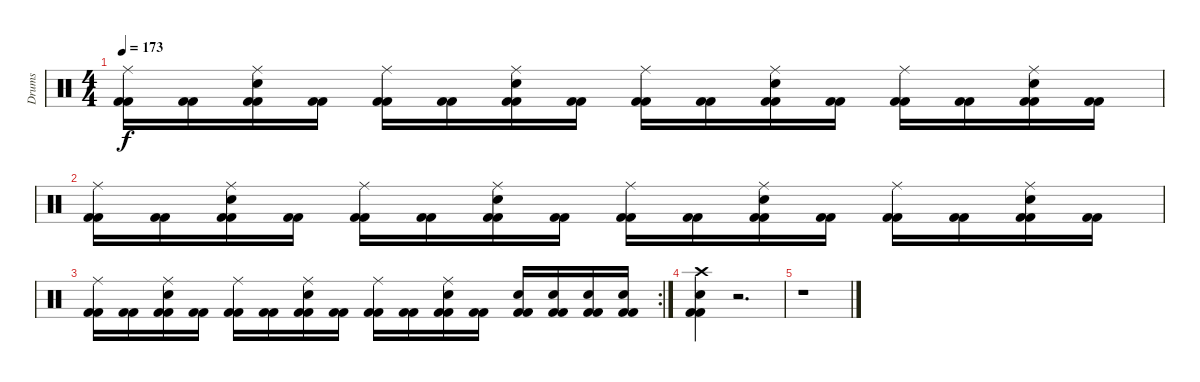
\track ("Drums" "Drums") {instrument percussion}
\staff {score}
\articulation defaults
\ts (4 4)
\tempo 173
\clef neutral
\ks c
("Kick (hit) 2" "Kick (hit) 2" "Ride (middle)").16{dy f} ("Kick (hit) 2" "Kick (hit) 2").16 ("Kick (hit) 2" "Kick (hit) 2" "Ride (middle)" "Electric Snare (hit)").16 ("Kick (hit) 2" "Kick (hit) 2").16 ("Kick (hit) 2" "Kick (hit) 2" "Ride (middle)").16 ("Kick (hit) 2" "Kick (hit) 2").16 ("Kick (hit) 2" "Kick (hit) 2" "Ride (middle)" "Electric Snare (hit)").16 ("Kick (hit) 2" "Kick (hit) 2").16 ("Kick (hit) 2" "Kick (hit) 2" "Ride (middle)").16 ("Kick (hit) 2" "Kick (hit) 2").16 ("Kick (hit) 2" "Kick (hit) 2" "Ride (middle)" "Electric Snare (hit)").16 ("Kick (hit) 2" "Kick (hit) 2").16 ("Kick (hit) 2" "Kick (hit) 2" "Ride (middle)").16 ("Kick (hit) 2" "Kick (hit) 2").16 ("Kick (hit) 2" "Kick (hit) 2" "Ride (middle)" "Electric Snare (hit)").16 ("Kick (hit) 2" "Kick (hit) 2").16 |
("Kick (hit) 2" "Kick (hit) 2" "Ride (middle)").16 ("Kick (hit) 2" "Kick (hit) 2").16 ("Kick (hit) 2" "Kick (hit) 2" "Ride (middle)" "Electric Snare (hit)").16 ("Kick (hit) 2" "Kick (hit) 2").16 ("Kick (hit) 2" "Kick (hit) 2" "Ride (middle)").16 ("Kick (hit) 2" "Kick (hit) 2").16 ("Kick (hit) 2" "Kick (hit) 2" "Ride (middle)" "Electric Snare (hit)").16 ("Kick (hit) 2" "Kick (hit) 2").16 ("Kick (hit) 2" "Kick (hit) 2" "Ride (middle)").16 ("Kick (hit) 2" "Kick (hit) 2").16 ("Kick (hit) 2" "Kick (hit) 2" "Ride (middle)" "Electric Snare (hit)").16 ("Kick (hit) 2" "Kick (hit) 2").16 ("Kick (hit) 2" "Kick (hit) 2" "Ride (middle)").16 ("Kick (hit) 2" "Kick (hit) 2").16 ("Kick (hit) 2" "Kick (hit) 2" "Ride (middle)" "Electric Snare (hit)").16 ("Kick (hit) 2" "Kick (hit) 2").16 |
\rc 2
("Kick (hit) 2" "Kick (hit) 2" "Ride (middle)").16 ("Kick (hit) 2" "Kick (hit) 2").16 ("Kick (hit) 2" "Kick (hit) 2" "Ride (middle)" "Electric Snare (hit)").16 ("Kick (hit) 2" "Kick (hit) 2").16 ("Kick (hit) 2" "Kick (hit) 2" "Ride (middle)").16 ("Kick (hit) 2" "Kick (hit) 2").16 ("Kick (hit) 2" "Kick (hit) 2" "Ride (middle)" "Electric Snare (hit)").16 ("Kick (hit) 2" "Kick (hit) 2").16 ("Kick (hit) 2" "Kick (hit) 2" "Ride (middle)").16 ("Kick (hit) 2" "Kick (hit) 2").16 ("Kick (hit) 2" "Kick (hit) 2" "Ride (middle)" "Electric Snare (hit)").16 ("Kick (hit) 2" "Kick (hit) 2").16 ("Kick (hit) 2" "Kick (hit) 2" "Electric Snare (hit)").16 ("Kick (hit) 2" "Kick (hit) 2" "Electric Snare (hit)").16 ("Kick (hit) 2" "Kick (hit) 2" "Electric Snare (hit)").16 ("Kick (hit) 2" "Kick (hit) 2" "Electric Snare (hit)").16 |
("Kick (hit) 2" "Kick (hit) 2" "Electric Snare (hit)" "Crash high (hit)").4 r.2{d} |
r.1
